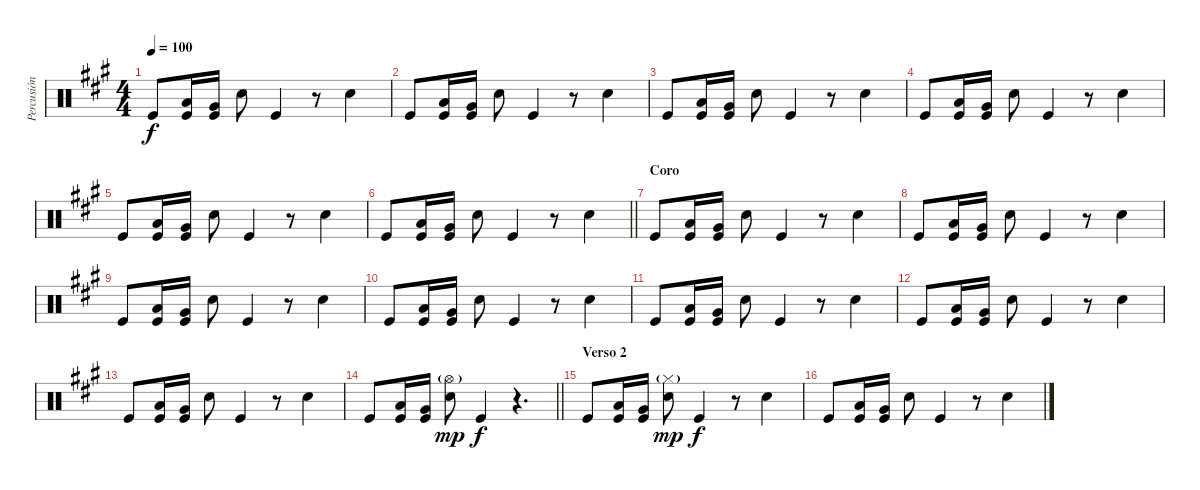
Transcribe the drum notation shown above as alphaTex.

\track ("Percusión" "Percusión") {instrument percussion}
\staff {score}
\articulation defaults
\ts (4 4)
\tempo 100
\clef neutral
\ks f#minor "Kick (hit)".8{dy f}
("Low Tom (hit)" "Kick (hit)").16 ("Very Low Tom (hit)" "Kick (hit)").16 "Electric Snare (hit)".8 "Kick (hit)".4 r.8 "Electric Snare (hit)".4 |
"Kick (hit)".8 ("Low Tom (hit)" "Kick (hit)").16 ("Very Low Tom (hit)" "Kick (hit)").16 "Electric Snare (hit)".8 "Kick (hit)".4 r.8 "Electric Snare (hit)".4 |
"Kick (hit)".8 ("Low Tom (hit)" "Kick (hit)").16 ("Very Low Tom (hit)" "Kick (hit)").16 "Electric Snare (hit)".8 "Kick (hit)".4 r.8 "Electric Snare (hit)".4 |
"Kick (hit)".8 ("Low Tom (hit)" "Kick (hit)").16 ("Very Low Tom (hit)" "Kick (hit)").16 "Electric Snare (hit)".8 "Kick (hit)".4 r.8 "Electric Snare (hit)".4 |
"Kick (hit)".8 ("Low Tom (hit)" "Kick (hit)").16 ("Very Low Tom (hit)" "Kick (hit)").16 "Electric Snare (hit)".8 "Kick (hit)".4 r.8 "Electric Snare (hit)".4 |
\barLineRight lightlight "Kick (hit)".8
("Low Tom (hit)" "Kick (hit)").16 ("Very Low Tom (hit)" "Kick (hit)").16 "Electric Snare (hit)".8 "Kick (hit)".4 r.8 "Electric Snare (hit)".4 |
\section ("" "Coro")
"Kick (hit)".8 ("Low Tom (hit)" "Kick (hit)").16 ("Very Low Tom (hit)" "Kick (hit)").16 "Electric Snare (hit)".8 "Kick (hit)".4 r.8 "Electric Snare (hit)".4 |
"Kick (hit)".8 ("Low Tom (hit)" "Kick (hit)").16 ("Very Low Tom (hit)" "Kick (hit)").16 "Electric Snare (hit)".8 "Kick (hit)".4 r.8 "Electric Snare (hit)".4 |
"Kick (hit)".8 ("Low Tom (hit)" "Kick (hit)").16 ("Very Low Tom (hit)" "Kick (hit)").16 "Electric Snare (hit)".8 "Kick (hit)".4 r.8 "Electric Snare (hit)".4 |
"Kick (hit)".8 ("Low Tom (hit)" "Kick (hit)").16 ("Very Low Tom (hit)" "Kick (hit)").16 "Electric Snare (hit)".8 "Kick (hit)".4 r.8 "Electric Snare (hit)".4 |
"Kick (hit)".8 ("Low Tom (hit)" "Kick (hit)").16 ("Very Low Tom (hit)" "Kick (hit)").16 "Electric Snare (hit)".8 "Kick (hit)".4 r.8 "Electric Snare (hit)".4 |
"Kick (hit)".8 ("Low Tom (hit)" "Kick (hit)").16 ("Very Low Tom (hit)" "Kick (hit)").16 "Electric Snare (hit)".8 "Kick (hit)".4 r.8 "Electric Snare (hit)".4 |
"Kick (hit)".8 ("Low Tom (hit)" "Kick (hit)").16 ("Very Low Tom (hit)" "Kick (hit)").16 "Electric Snare (hit)".8 "Kick (hit)".4 r.8 "Electric Snare (hit)".4 |
\barLineRight lightlight "Kick (hit)".8
("Low Tom (hit)" "Kick (hit)").16 ("Very Low Tom (hit)" "Kick (hit)").16 ("Hi-Hat (open)"{g} "Electric Snare (hit)").8{dy mp} "Kick (hit)".4{dy f} r.4{d} |
\section ("" "Verso 2")
"Kick (hit)".8 ("Low Tom (hit)" "Kick (hit)").16 ("Very Low Tom (hit)" "Kick (hit)").16 ("Hi-Hat (closed)"{g} "Electric Snare (hit)").8{dy mp} "Kick (hit)".4{dy f} r.8 "Electric Snare (hit)".4 |
"Kick (hit)".8 ("Low Tom (hit)" "Kick (hit)").16 ("Very Low Tom (hit)" "Kick (hit)").16 "Electric Snare (hit)".8 "Kick (hit)".4 r.8 "Electric Snare (hit)".4
